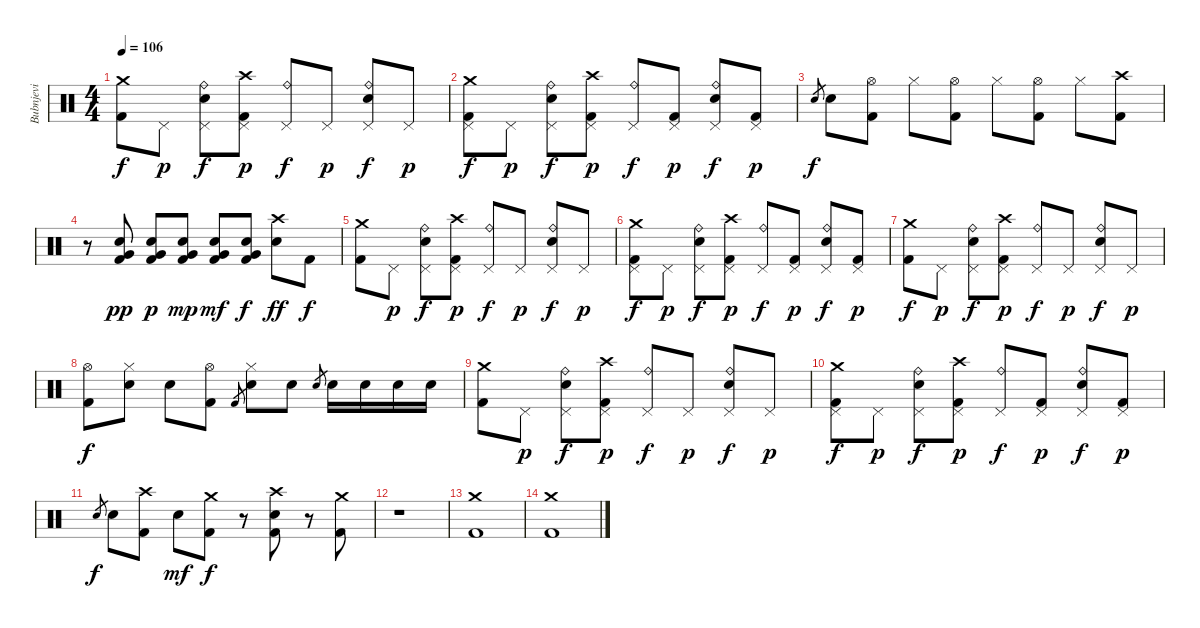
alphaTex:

\track ("Bubnjevi" "Bubnjevi") {instrument percussion}
\staff {score}
\articulation defaults
\ts (4 4)
\tempo 106
\clef neutral
\ks c
("Crash medium (hit)" "Kick (hit) 2").8{dy f} "Pedal Hi-Hat (hit)".8{dy p} ("Ride (bell)" "Electric Snare (hit)" "Pedal Hi-Hat (hit)").8{dy f} ("Crash high (hit)" "Kick (hit) 2" "Pedal Hi-Hat (hit)").8{dy p} ("Ride (bell)" "Pedal Hi-Hat (hit)").8{dy f} "Pedal Hi-Hat (hit)".8{dy p} ("Ride (bell)" "Electric Snare (hit)" "Pedal Hi-Hat (hit)").8{dy f} "Pedal Hi-Hat (hit)".8{dy p} |
("Crash medium (hit)" "Kick (hit) 2" "Pedal Hi-Hat (hit)").8{dy f} "Pedal Hi-Hat (hit)".8{dy p} ("Ride (bell)" "Electric Snare (hit)" "Pedal Hi-Hat (hit)").8{dy f} ("Crash high (hit)" "Kick (hit) 2" "Pedal Hi-Hat (hit)").8{dy p} ("Ride (bell)" "Pedal Hi-Hat (hit)").8{dy f} ("Kick (hit) 2" "Pedal Hi-Hat (hit)").8{dy p} ("Ride (bell)" "Electric Snare (hit)" "Pedal Hi-Hat (hit)").8{dy f} ("Kick (hit) 2" "Pedal Hi-Hat (hit)").8{dy p} |
"Electric Snare (hit)".8{gr dy f} "Electric Snare (hit)".8 ("Hi-Hat (open)" "Kick (hit) 2").8 "Hi-Hat (closed)".8 ("Hi-Hat (open)" "Kick (hit) 2").8 "Hi-Hat (closed)".8 ("Hi-Hat (open)" "Kick (hit) 2").8 "Hi-Hat (closed)".8 ("Crash high (hit)" "Kick (hit) 2").8 |
r.8 ("Electric Snare (hit)" "Kick (hit) 2" "Very Low Tom (hit)").8{dy pp} ("Electric Snare (hit)" "Kick (hit) 2" "Very Low Tom (hit)").8{dy p} ("Electric Snare (hit)" "Kick (hit) 2" "Very Low Tom (hit)").8{dy mp} ("Electric Snare (hit)" "Kick (hit) 2" "Very Low Tom (hit)").8{dy mf} ("Electric Snare (hit)" "Kick (hit) 2" "Very Low Tom (hit)").8{dy f} ("Crash high (hit)" "Electric Snare (hit)").8{dy ff} "Kick (hit) 2".8{dy f} |
("Crash medium (hit)" "Kick (hit) 2").8 "Pedal Hi-Hat (hit)".8{dy p} ("Ride (bell)" "Electric Snare (hit)" "Pedal Hi-Hat (hit)").8{dy f} ("Crash high (hit)" "Kick (hit) 2" "Pedal Hi-Hat (hit)").8{dy p} ("Ride (bell)" "Pedal Hi-Hat (hit)").8{dy f} "Pedal Hi-Hat (hit)".8{dy p} ("Ride (bell)" "Electric Snare (hit)" "Pedal Hi-Hat (hit)").8{dy f} "Pedal Hi-Hat (hit)".8{dy p} |
("Crash medium (hit)" "Kick (hit) 2" "Pedal Hi-Hat (hit)").8{dy f} "Pedal Hi-Hat (hit)".8{dy p} ("Ride (bell)" "Electric Snare (hit)" "Pedal Hi-Hat (hit)").8{dy f} ("Crash high (hit)" "Kick (hit) 2" "Pedal Hi-Hat (hit)").8{dy p} ("Ride (bell)" "Pedal Hi-Hat (hit)").8{dy f} ("Kick (hit) 2" "Pedal Hi-Hat (hit)").8{dy p} ("Ride (bell)" "Electric Snare (hit)" "Pedal Hi-Hat (hit)").8{dy f} ("Kick (hit) 2" "Pedal Hi-Hat (hit)").8{dy p} |
("Crash medium (hit)" "Kick (hit) 2").8{dy f} "Pedal Hi-Hat (hit)".8{dy p} ("Ride (bell)" "Electric Snare (hit)" "Pedal Hi-Hat (hit)").8{dy f} ("Crash high (hit)" "Kick (hit) 2" "Pedal Hi-Hat (hit)").8{dy p} ("Ride (bell)" "Pedal Hi-Hat (hit)").8{dy f} "Pedal Hi-Hat (hit)".8{dy p} ("Ride (bell)" "Electric Snare (hit)" "Pedal Hi-Hat (hit)").8{dy f} "Pedal Hi-Hat (hit)".8{dy p} |
("Hi-Hat (open)" "Kick (hit) 2").8{dy f} ("Hi-Hat (closed)" "Electric Snare (hit)").8 "Electric Snare (hit)".8 ("Hi-Hat (open)" "Kick (hit) 2").8 "Kick (hit) 2".8{gr} ("Hi-Hat (closed)" "Electric Snare (hit)").8 "Electric Snare (hit)".8 "Electric Snare (hit)".8{gr} "Electric Snare (hit)".16 "Electric Snare (hit)".16 "Electric Snare (hit)".16 "Electric Snare (hit)".16 |
("Crash medium (hit)" "Kick (hit) 2").8 "Pedal Hi-Hat (hit)".8{dy p} ("Ride (bell)" "Electric Snare (hit)" "Pedal Hi-Hat (hit)").8{dy f} ("Crash high (hit)" "Kick (hit) 2" "Pedal Hi-Hat (hit)").8{dy p} ("Ride (bell)" "Pedal Hi-Hat (hit)").8{dy f} "Pedal Hi-Hat (hit)".8{dy p} ("Ride (bell)" "Electric Snare (hit)" "Pedal Hi-Hat (hit)").8{dy f} "Pedal Hi-Hat (hit)".8{dy p} |
("Crash medium (hit)" "Kick (hit) 2" "Pedal Hi-Hat (hit)").8{dy f} "Pedal Hi-Hat (hit)".8{dy p} ("Ride (bell)" "Electric Snare (hit)" "Pedal Hi-Hat (hit)").8{dy f} ("Crash high (hit)" "Kick (hit) 2" "Pedal Hi-Hat (hit)").8{dy p} ("Ride (bell)" "Pedal Hi-Hat (hit)").8{dy f} ("Kick (hit) 2" "Pedal Hi-Hat (hit)").8{dy p} ("Ride (bell)" "Electric Snare (hit)" "Pedal Hi-Hat (hit)").8{dy f} ("Kick (hit) 2" "Pedal Hi-Hat (hit)").8{dy p} |
"Electric Snare (hit)".8{gr dy f} "Electric Snare (hit)".8 ("Crash high (hit)" "Kick (hit) 2").8 "Electric Snare (hit)".8{dy mf} ("Crash medium (hit)" "Kick (hit) 2").8{dy f} r.8 ("Crash high (hit)" "Electric Snare (hit)" "Kick (hit) 2").8 r.8 ("Crash medium (hit)" "Kick (hit) 2").8 |
r.1 |
("Crash medium (hit)" "Kick (hit) 2").1 |
("Crash medium (hit)" "Kick (hit) 2").1
